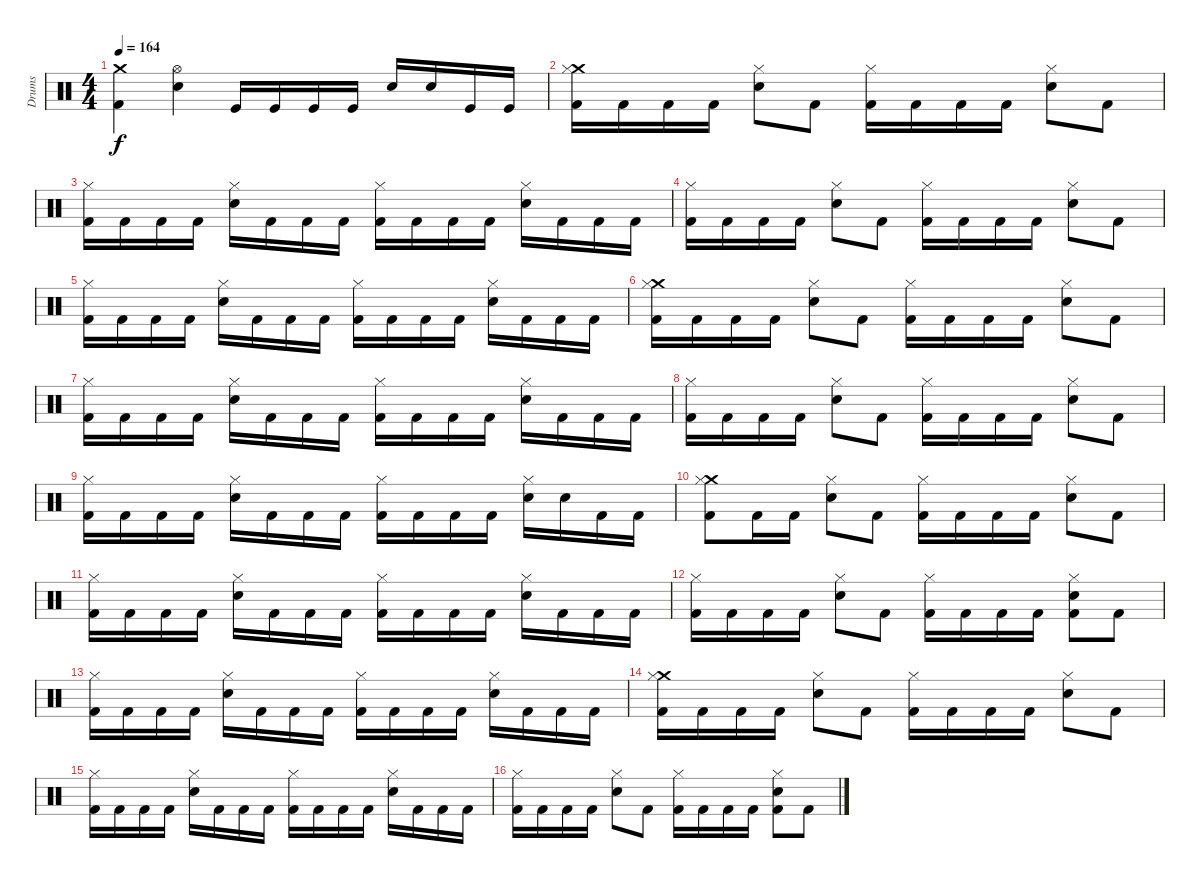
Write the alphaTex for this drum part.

\track ("Drums" "Drums") {instrument percussion}
\staff {score}
\articulation defaults
\ts (4 4)
\tempo 164
\clef neutral
\ks c
("Crash medium (hit)" "Kick (hit) 2").4{dy f} ("Hi-Hat (open)" "Electric Snare (hit)").4 "Kick (hit)".16 "Kick (hit)".16 "Kick (hit)".16 "Kick (hit)".16 "Electric Snare (hit)".16 "Electric Snare (hit)".16 "Kick (hit)".16 "Kick (hit)".16 |
("Crash medium (hit)" "Kick (hit) 2" "Hi-Hat (closed)").16 "Kick (hit) 2".16 "Kick (hit) 2".16 "Kick (hit) 2".16 ("Hi-Hat (closed)" "Electric Snare (hit)").8 "Kick (hit) 2".8 ("Hi-Hat (closed)" "Kick (hit) 2").16 "Kick (hit) 2".16 "Kick (hit) 2".16 "Kick (hit) 2".16 ("Hi-Hat (closed)" "Electric Snare (hit)").8 "Kick (hit) 2".8 |
("Hi-Hat (closed)" "Kick (hit) 2").16 "Kick (hit) 2".16 "Kick (hit) 2".16 "Kick (hit) 2".16 ("Hi-Hat (closed)" "Electric Snare (hit)").16 "Kick (hit) 2".16 "Kick (hit) 2".16 "Kick (hit) 2".16 ("Hi-Hat (closed)" "Kick (hit) 2").16 "Kick (hit) 2".16 "Kick (hit) 2".16 "Kick (hit) 2".16 ("Hi-Hat (closed)" "Electric Snare (hit)").16 "Kick (hit) 2".16 "Kick (hit) 2".16 "Kick (hit) 2".16 |
("Hi-Hat (closed)" "Kick (hit) 2").16 "Kick (hit) 2".16 "Kick (hit) 2".16 "Kick (hit) 2".16 ("Hi-Hat (closed)" "Electric Snare (hit)").8 "Kick (hit) 2".8 ("Hi-Hat (closed)" "Kick (hit) 2").16 "Kick (hit) 2".16 "Kick (hit) 2".16 "Kick (hit) 2".16 ("Hi-Hat (closed)" "Electric Snare (hit)").8 "Kick (hit) 2".8 |
("Hi-Hat (closed)" "Kick (hit) 2").16 "Kick (hit) 2".16 "Kick (hit) 2".16 "Kick (hit) 2".16 ("Hi-Hat (closed)" "Electric Snare (hit)").16 "Kick (hit) 2".16 "Kick (hit) 2".16 "Kick (hit) 2".16 ("Hi-Hat (closed)" "Kick (hit) 2").16 "Kick (hit) 2".16 "Kick (hit) 2".16 "Kick (hit) 2".16 ("Hi-Hat (closed)" "Electric Snare (hit)").16 "Kick (hit) 2".16 "Kick (hit) 2".16 "Kick (hit) 2".16 |
("Crash medium (hit)" "Kick (hit) 2" "Hi-Hat (closed)").16 "Kick (hit) 2".16 "Kick (hit) 2".16 "Kick (hit) 2".16 ("Hi-Hat (closed)" "Electric Snare (hit)").8 "Kick (hit) 2".8 ("Hi-Hat (closed)" "Kick (hit) 2").16 "Kick (hit) 2".16 "Kick (hit) 2".16 "Kick (hit) 2".16 ("Hi-Hat (closed)" "Electric Snare (hit)").8 "Kick (hit) 2".8 |
("Hi-Hat (closed)" "Kick (hit) 2").16 "Kick (hit) 2".16 "Kick (hit) 2".16 "Kick (hit) 2".16 ("Hi-Hat (closed)" "Electric Snare (hit)").16 "Kick (hit) 2".16 "Kick (hit) 2".16 "Kick (hit) 2".16 ("Hi-Hat (closed)" "Kick (hit) 2").16 "Kick (hit) 2".16 "Kick (hit) 2".16 "Kick (hit) 2".16 ("Hi-Hat (closed)" "Electric Snare (hit)").16 "Kick (hit) 2".16 "Kick (hit) 2".16 "Kick (hit) 2".16 |
("Hi-Hat (closed)" "Kick (hit) 2").16 "Kick (hit) 2".16 "Kick (hit) 2".16 "Kick (hit) 2".16 ("Hi-Hat (closed)" "Electric Snare (hit)").8 "Kick (hit) 2".8 ("Hi-Hat (closed)" "Kick (hit) 2").16 "Kick (hit) 2".16 "Kick (hit) 2".16 "Kick (hit) 2".16 ("Hi-Hat (closed)" "Electric Snare (hit)").8 "Kick (hit) 2".8 |
("Hi-Hat (closed)" "Kick (hit) 2").16 "Kick (hit) 2".16 "Kick (hit) 2".16 "Kick (hit) 2".16 ("Hi-Hat (closed)" "Electric Snare (hit)").16 "Kick (hit) 2".16 "Kick (hit) 2".16 "Kick (hit) 2".16 ("Hi-Hat (closed)" "Kick (hit) 2").16 "Kick (hit) 2".16 "Kick (hit) 2".16 "Kick (hit) 2".16 ("Hi-Hat (closed)" "Electric Snare (hit)").16 "Electric Snare (hit)".16 "Kick (hit) 2".16 "Kick (hit) 2".16 |
("Crash medium (hit)" "Kick (hit) 2" "Hi-Hat (closed)").8 "Kick (hit) 2".16 "Kick (hit) 2".16 ("Hi-Hat (closed)" "Electric Snare (hit)").8 "Kick (hit) 2".8 ("Hi-Hat (closed)" "Kick (hit) 2").16 "Kick (hit) 2".16 "Kick (hit) 2".16 "Kick (hit) 2".16 ("Hi-Hat (closed)" "Electric Snare (hit)").8 "Kick (hit) 2".8 |
("Hi-Hat (closed)" "Kick (hit) 2").16 "Kick (hit) 2".16 "Kick (hit) 2".16 "Kick (hit) 2".16 ("Hi-Hat (closed)" "Electric Snare (hit)").16 "Kick (hit) 2".16 "Kick (hit) 2".16 "Kick (hit) 2".16 ("Hi-Hat (closed)" "Kick (hit) 2").16 "Kick (hit) 2".16 "Kick (hit) 2".16 "Kick (hit) 2".16 ("Hi-Hat (closed)" "Electric Snare (hit)").16 "Kick (hit) 2".16 "Kick (hit) 2".16 "Kick (hit) 2".16 |
("Hi-Hat (closed)" "Kick (hit) 2").16 "Kick (hit) 2".16 "Kick (hit) 2".16 "Kick (hit) 2".16 ("Hi-Hat (closed)" "Electric Snare (hit)").8 "Kick (hit) 2".8 ("Hi-Hat (closed)" "Kick (hit) 2").16 "Kick (hit) 2".16 "Kick (hit) 2".16 "Kick (hit) 2".16 ("Hi-Hat (closed)" "Electric Snare (hit)" "Kick (hit) 2").8 "Kick (hit) 2".8 |
("Hi-Hat (closed)" "Kick (hit) 2").16 "Kick (hit) 2".16 "Kick (hit) 2".16 "Kick (hit) 2".16 ("Hi-Hat (closed)" "Electric Snare (hit)").16 "Kick (hit) 2".16 "Kick (hit) 2".16 "Kick (hit) 2".16 ("Hi-Hat (closed)" "Kick (hit) 2").16 "Kick (hit) 2".16 "Kick (hit) 2".16 "Kick (hit) 2".16 ("Hi-Hat (closed)" "Electric Snare (hit)").16 "Kick (hit) 2".16 "Kick (hit) 2".16 "Kick (hit) 2".16 |
("Crash medium (hit)" "Kick (hit) 2" "Hi-Hat (closed)").16 "Kick (hit) 2".16 "Kick (hit) 2".16 "Kick (hit) 2".16 ("Hi-Hat (closed)" "Electric Snare (hit)").8 "Kick (hit) 2".8 ("Hi-Hat (closed)" "Kick (hit) 2").16 "Kick (hit) 2".16 "Kick (hit) 2".16 "Kick (hit) 2".16 ("Hi-Hat (closed)" "Electric Snare (hit)").8 "Kick (hit) 2".8 |
("Hi-Hat (closed)" "Kick (hit) 2").16 "Kick (hit) 2".16 "Kick (hit) 2".16 "Kick (hit) 2".16 ("Hi-Hat (closed)" "Electric Snare (hit)").16 "Kick (hit) 2".16 "Kick (hit) 2".16 "Kick (hit) 2".16 ("Hi-Hat (closed)" "Kick (hit) 2").16 "Kick (hit) 2".16 "Kick (hit) 2".16 "Kick (hit) 2".16 ("Hi-Hat (closed)" "Electric Snare (hit)").16 "Kick (hit) 2".16 "Kick (hit) 2".16 "Kick (hit) 2".16 |
("Hi-Hat (closed)" "Kick (hit) 2").16 "Kick (hit) 2".16 "Kick (hit) 2".16 "Kick (hit) 2".16 ("Hi-Hat (closed)" "Electric Snare (hit)").8 "Kick (hit) 2".8 ("Hi-Hat (closed)" "Kick (hit) 2").16 "Kick (hit) 2".16 "Kick (hit) 2".16 "Kick (hit) 2".16 ("Hi-Hat (closed)" "Electric Snare (hit)" "Kick (hit) 2").8 "Kick (hit) 2".8
